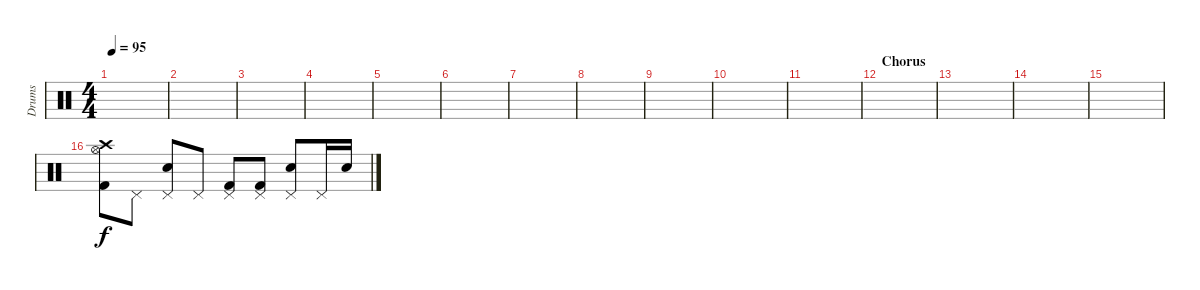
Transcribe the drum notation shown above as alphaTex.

\track ("Drums" "Drums") {instrument percussion}
\staff {score}
\articulation defaults
\ts (4 4)
\tempo 95
\clef neutral
\ks c
|
|
|
|
|
|
|
|
|
|
|
\section ("" "Chorus")
|
|
|
|
("Hi-Hat (open)" "Crash high (hit)" "Kick (hit) 2").8 "Pedal Hi-Hat (hit)".8 ("Pedal Hi-Hat (hit)" "Electric Snare (hit)").8 "Pedal Hi-Hat (hit)".8 ("Pedal Hi-Hat (hit)" "Kick (hit) 2").8 ("Pedal Hi-Hat (hit)" "Kick (hit) 2").8 ("Pedal Hi-Hat (hit)" "Electric Snare (hit)").8 "Pedal Hi-Hat (hit)".16 "Electric Snare (hit)".16
